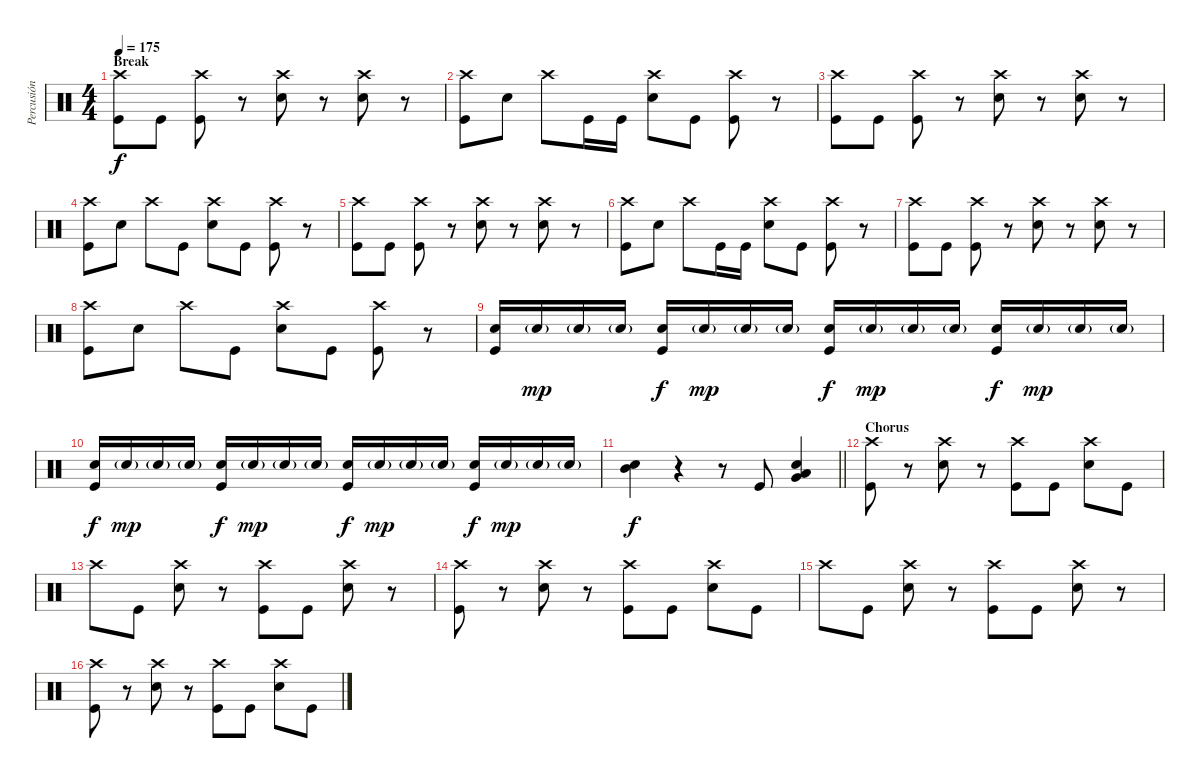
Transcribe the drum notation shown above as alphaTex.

\track ("Percusión" "Percusión") {instrument percussion}
\staff {score}
\articulation defaults
\ts (4 4)
\section ("" "Break")
\tempo 175
\clef neutral
\ks c
("Crash high (hit)" "Kick (hit)").8{dy f} "Kick (hit)".8 ("Crash high (hit)" "Kick (hit)").8 r.8 ("Crash high (hit)" "Snare (hit) 2").8 r.8 ("Crash high (hit)" "Snare (hit) 2").8 r.8 |
("Crash high (hit)" "Kick (hit)").8 "Snare (hit) 2".8 "Crash high (hit)".8 "Kick (hit)".16 "Kick (hit)".16 ("Crash high (hit)" "Snare (hit) 2").8 "Kick (hit)".8 ("Crash high (hit)" "Kick (hit)").8 r.8 |
("Crash high (hit)" "Kick (hit)").8 "Kick (hit)".8 ("Crash high (hit)" "Kick (hit)").8 r.8 ("Crash high (hit)" "Snare (hit) 2").8 r.8 ("Crash high (hit)" "Snare (hit) 2").8 r.8 |
("Crash high (hit)" "Kick (hit)").8 "Snare (hit) 2".8 "Crash high (hit)".8 "Kick (hit)".8 ("Crash high (hit)" "Snare (hit) 2").8 "Kick (hit)".8 ("Crash high (hit)" "Kick (hit)").8 r.8 |
("Crash high (hit)" "Kick (hit)").8 "Kick (hit)".8 ("Crash high (hit)" "Kick (hit)").8 r.8 ("Crash high (hit)" "Snare (hit) 2").8 r.8 ("Crash high (hit)" "Snare (hit) 2").8 r.8 |
("Crash high (hit)" "Kick (hit)").8 "Snare (hit) 2".8 "Crash high (hit)".8 "Kick (hit)".16 "Kick (hit)".16 ("Crash high (hit)" "Snare (hit) 2").8 "Kick (hit)".8 ("Crash high (hit)" "Kick (hit)").8 r.8 |
("Crash high (hit)" "Kick (hit)").8 "Kick (hit)".8 ("Crash high (hit)" "Kick (hit)").8 r.8 ("Crash high (hit)" "Snare (hit) 2").8 r.8 ("Crash high (hit)" "Snare (hit) 2").8 r.8 |
("Crash high (hit)" "Kick (hit)").8 "Snare (hit) 2".8 "Crash high (hit)".8 "Kick (hit)".8 ("Crash high (hit)" "Snare (hit) 2").8 "Kick (hit)".8 ("Crash high (hit)" "Kick (hit)").8 r.8 |
("Snare (hit) 2" "Kick (hit)").16 "Snare (hit) 2"{g}.16{dy mp} "Snare (hit) 2"{g}.16 "Snare (hit) 2"{g}.16 ("Snare (hit) 2" "Kick (hit)").16{dy f} "Snare (hit) 2"{g}.16{dy mp} "Snare (hit) 2"{g}.16 "Snare (hit) 2"{g}.16 ("Snare (hit) 2" "Kick (hit)").16{dy f} "Snare (hit) 2"{g}.16{dy mp} "Snare (hit) 2"{g}.16 "Snare (hit) 2"{g}.16 ("Snare (hit) 2" "Kick (hit)").16{dy f} "Snare (hit) 2"{g}.16{dy mp} "Snare (hit) 2"{g}.16 "Snare (hit) 2"{g}.16 |
("Snare (hit) 2" "Kick (hit)").16{dy f} "Snare (hit) 2"{g}.16{dy mp} "Snare (hit) 2"{g}.16 "Snare (hit) 2"{g}.16 ("Snare (hit) 2" "Kick (hit)").16{dy f} "Snare (hit) 2"{g}.16{dy mp} "Snare (hit) 2"{g}.16 "Snare (hit) 2"{g}.16 ("Snare (hit) 2" "Kick (hit)").16{dy f} "Snare (hit) 2"{g}.16{dy mp} "Snare (hit) 2"{g}.16 "Snare (hit) 2"{g}.16 ("Snare (hit) 2" "Kick (hit)").16{dy f} "Snare (hit) 2"{g}.16{dy mp} "Snare (hit) 2"{g}.16 "Snare (hit) 2"{g}.16 |
\barLineRight lightlight
("Mid Tom (hit)" "Snare (hit) 2").4{dy f} r.4 r.8 "Kick (hit)".8 ("Low Floor Tom (hit)" "Very Low Tom (hit)" "Snare (hit) 2").4 |
\section ("" "Chorus")
("Crash high (hit)" "Kick (hit)").8 r.8 ("Crash high (hit)" "Snare (hit) 2").8 r.8 ("Crash high (hit)" "Kick (hit)").8 "Kick (hit)".8 ("Crash high (hit)" "Snare (hit) 2").8 "Kick (hit)".8 |
"Crash high (hit)".8 "Kick (hit)".8 ("Crash high (hit)" "Snare (hit) 2").8 r.8 ("Crash high (hit)" "Kick (hit)").8 "Kick (hit)".8 ("Crash high (hit)" "Snare (hit) 2").8 r.8 |
("Crash high (hit)" "Kick (hit)").8 r.8 ("Crash high (hit)" "Snare (hit) 2").8 r.8 ("Crash high (hit)" "Kick (hit)").8 "Kick (hit)".8 ("Crash high (hit)" "Snare (hit) 2").8 "Kick (hit)".8 |
"Crash high (hit)".8 "Kick (hit)".8 ("Crash high (hit)" "Snare (hit) 2").8 r.8 ("Crash high (hit)" "Kick (hit)").8 "Kick (hit)".8 ("Crash high (hit)" "Snare (hit) 2").8 r.8 |
("Crash high (hit)" "Kick (hit)").8 r.8 ("Crash high (hit)" "Snare (hit) 2").8 r.8 ("Crash high (hit)" "Kick (hit)").8 "Kick (hit)".8 ("Crash high (hit)" "Snare (hit) 2").8 "Kick (hit)".8
